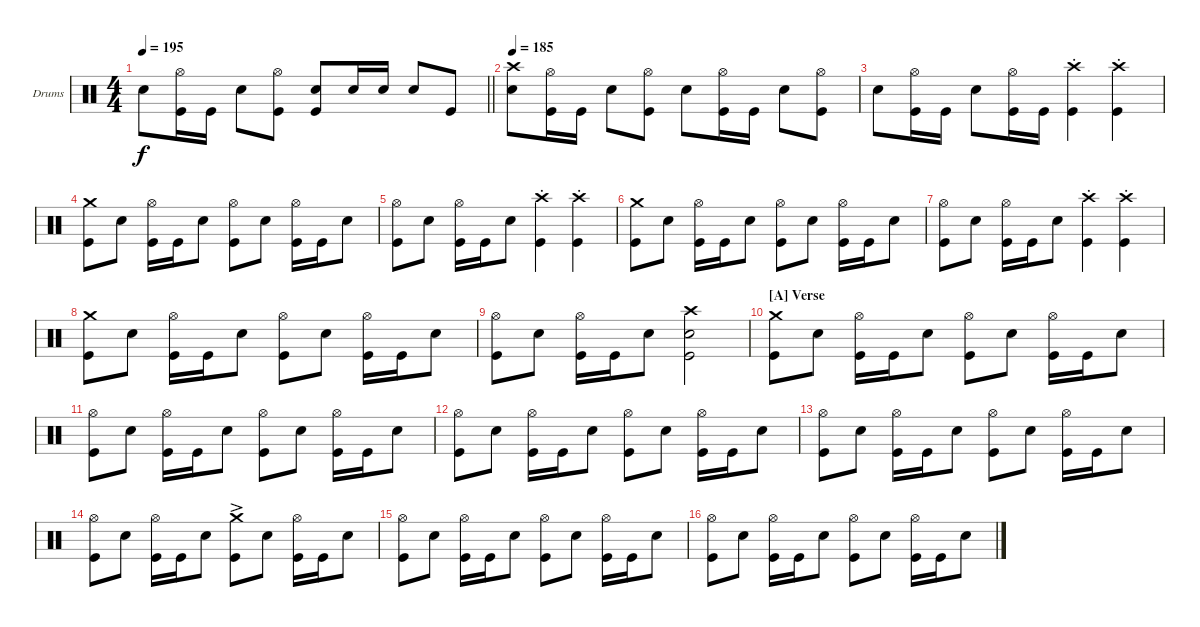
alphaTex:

\bracketExtendMode groupsimilarinstruments
\firstSystemTrackNameOrientation horizontal
\otherSystemsTrackNameOrientation horizontal
\track ("Drumkit" "Drums") {instrument percussion}
\staff {score}
\articulation defaults
\ts (4 4)
\tempo 195
\clef neutral
\scale
0.973518
\barLineRight lightlight
\ks c "Snare (hit) 2".8{dy f}
("Kick (hit)" "Hi-Hat (open)").16 "Kick (hit)".16 "Snare (hit) 2".8 ("Kick (hit)" "Hi-Hat (open)").8 ("Kick (hit)" "Snare (hit) 2").8 "Snare (hit) 2".16 "Snare (hit) 2".16 "Snare (hit) 2".8 "Kick (hit)".8 |
\tempo 185
\scale
0.973518 ("Snare (hit) 2" "Crash high (hit)").8 ("Kick (hit)" "Hi-Hat (open)").16 "Kick (hit)".16 "Snare (hit) 2".8 ("Kick (hit)" "Hi-Hat (open)").8 "Snare (hit) 2".8 ("Kick (hit)" "Hi-Hat (open)").16 "Kick (hit)".16 "Snare (hit) 2".8 ("Kick (hit)" "Hi-Hat (open)").8 |
\scale
0.973518 "Snare (hit) 2".8 ("Kick (hit)" "Hi-Hat (open)").16 "Kick (hit)".16 "Snare (hit) 2".8 ("Kick (hit)" "Hi-Hat (open)").16 "Kick (hit)".16 ("Kick (hit)" "Crash high (hit)"{st}).4 ("Kick (hit)" "Crash high (hit)"{st}).4 |
\scale
0.973518 ("Kick (hit)" "Crash medium (hit)").8 "Snare (hit) 2".8 ("Kick (hit)" "Hi-Hat (open)").16 "Kick (hit)".16 "Snare (hit) 2".8 ("Kick (hit)" "Hi-Hat (open)").8 "Snare (hit) 2".8 ("Kick (hit)" "Hi-Hat (open)").16 "Kick (hit)".16 "Snare (hit) 2".8 |
\scale
1.17024 ("Kick (hit)" "Hi-Hat (open)").8 "Snare (hit) 2".8 ("Kick (hit)" "Hi-Hat (open)").16 "Kick (hit)".16 "Snare (hit) 2".8 ("Kick (hit)" "Crash high (hit)"{st}).4 ("Kick (hit)" "Crash high (hit)"{st}).4 |
\scale
0.943253 ("Kick (hit)" "Crash medium (hit)").8 "Snare (hit) 2".8 ("Kick (hit)" "Hi-Hat (open)").16 "Kick (hit)".16 "Snare (hit) 2".8 ("Kick (hit)" "Hi-Hat (open)").8 "Snare (hit) 2".8 ("Kick (hit)" "Hi-Hat (open)").16 "Kick (hit)".16 "Snare (hit) 2".8 |
\scale
0.943253 ("Kick (hit)" "Hi-Hat (open)").8 "Snare (hit) 2".8 ("Kick (hit)" "Hi-Hat (open)").16 "Kick (hit)".16 "Snare (hit) 2".8 ("Kick (hit)" "Crash high (hit)"{st}).4 ("Kick (hit)" "Crash high (hit)"{st}).4 |
\scale
0.943253 ("Kick (hit)" "Crash medium (hit)").8 "Snare (hit) 2".8 ("Kick (hit)" "Hi-Hat (open)").16 "Kick (hit)".16 "Snare (hit) 2".8 ("Kick (hit)" "Hi-Hat (open)").8 "Snare (hit) 2".8 ("Kick (hit)" "Hi-Hat (open)").16 "Kick (hit)".16 "Snare (hit) 2".8 |
\scale
1.02648 ("Kick (hit)" "Hi-Hat (open)").8 "Snare (hit) 2".8 ("Kick (hit)" "Hi-Hat (open)").16 "Kick (hit)".16 "Snare (hit) 2".8 ("Kick (hit)" "Crash high (hit)" "Snare (hit) 2").2 |
\section ("A" "Verse")
\scale
0.973518 ("Kick (hit)" "Crash medium (hit)").8 "Snare (hit) 2".8 ("Kick (hit)" "Hi-Hat (open)").16 "Kick (hit)".16 "Snare (hit) 2".8 ("Kick (hit)" "Hi-Hat (open)").8 "Snare (hit) 2".8 ("Kick (hit)" "Hi-Hat (open)").16 "Kick (hit)".16 "Snare (hit) 2".8 |
\scale
1.07945 ("Kick (hit)" "Hi-Hat (open)").8 "Snare (hit) 2".8 ("Kick (hit)" "Hi-Hat (open)").16 "Kick (hit)".16 "Snare (hit) 2".8 ("Kick (hit)" "Hi-Hat (open)").8 "Snare (hit) 2".8 ("Kick (hit)" "Hi-Hat (open)").16 "Kick (hit)".16 "Snare (hit) 2".8 |
\scale
0.973518 ("Kick (hit)" "Hi-Hat (open)").8 "Snare (hit) 2".8 ("Kick (hit)" "Hi-Hat (open)").16 "Kick (hit)".16 "Snare (hit) 2".8 ("Kick (hit)" "Hi-Hat (open)").8 "Snare (hit) 2".8 ("Kick (hit)" "Hi-Hat (open)").16 "Kick (hit)".16 "Snare (hit) 2".8 |
\scale
0.973518 ("Kick (hit)" "Hi-Hat (open)").8 "Snare (hit) 2".8 ("Kick (hit)" "Hi-Hat (open)").16 "Kick (hit)".16 "Snare (hit) 2".8 ("Kick (hit)" "Hi-Hat (open)").8 "Snare (hit) 2".8 ("Kick (hit)" "Hi-Hat (open)").16 "Kick (hit)".16 "Snare (hit) 2".8 |
\scale
0.973518 ("Kick (hit)" "Hi-Hat (open)").8 "Snare (hit) 2".8 ("Kick (hit)" "Hi-Hat (open)").16 "Kick (hit)".16 "Snare (hit) 2".8 ("Kick (hit)" "Crash medium (hit)"{ac}).8 "Snare (hit) 2".8 ("Kick (hit)" "Hi-Hat (open)").16 "Kick (hit)".16 "Snare (hit) 2".8 |
\scale
1.07945 ("Kick (hit)" "Hi-Hat (open)").8 "Snare (hit) 2".8 ("Kick (hit)" "Hi-Hat (open)").16 "Kick (hit)".16 "Snare (hit) 2".8 ("Kick (hit)" "Hi-Hat (open)").8 "Snare (hit) 2".8 ("Kick (hit)" "Hi-Hat (open)").16 "Kick (hit)".16 "Snare (hit) 2".8 |
\scale
0.973518 ("Kick (hit)" "Hi-Hat (open)").8 "Snare (hit) 2".8 ("Kick (hit)" "Hi-Hat (open)").16 "Kick (hit)".16 "Snare (hit) 2".8 ("Kick (hit)" "Hi-Hat (open)").8 "Snare (hit) 2".8 ("Kick (hit)" "Hi-Hat (open)").16 "Kick (hit)".16 "Snare (hit) 2".8
